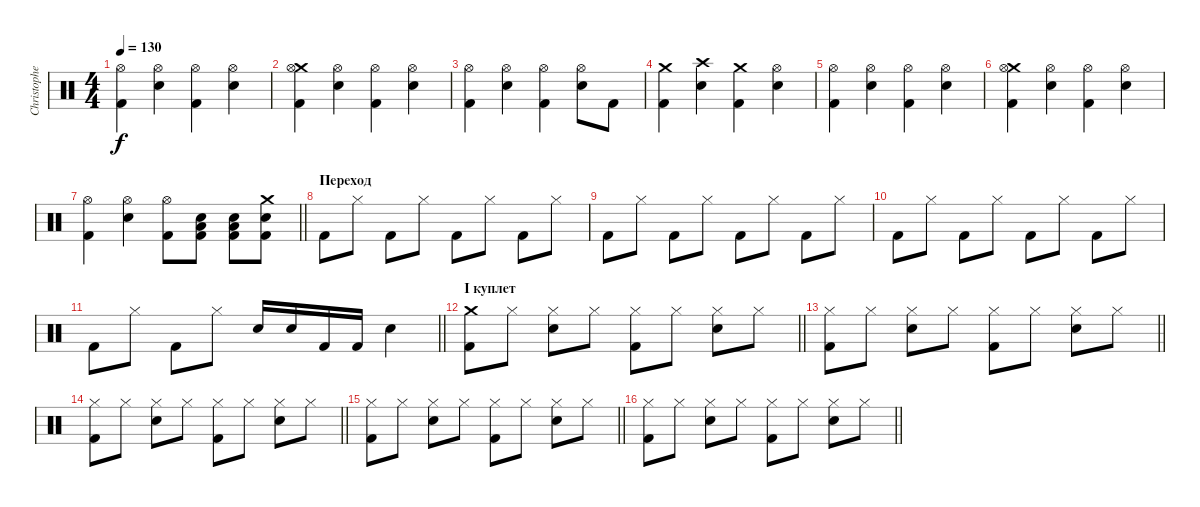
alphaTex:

\track ("Christopher Schneider" "Christophe") {instrument percussion}
\staff {score}
\articulation defaults
\ts (4 4)
\tempo 130
\clef neutral
\ks c
("Hi-Hat (open)" "Kick (hit) 2").4{dy f} ("Hi-Hat (open)" "Electric Snare (hit)").4 ("Hi-Hat (open)" "Kick (hit) 2").4 ("Hi-Hat (open)" "Electric Snare (hit)").4 |
("Crash medium (hit)" "Kick (hit) 2" "Hi-Hat (open)").4 ("Hi-Hat (open)" "Electric Snare (hit)").4 ("Hi-Hat (open)" "Kick (hit) 2").4 ("Hi-Hat (open)" "Electric Snare (hit)").4 |
("Hi-Hat (open)" "Kick (hit) 2").4 ("Hi-Hat (open)" "Electric Snare (hit)").4 ("Hi-Hat (open)" "Kick (hit) 2").4 ("Hi-Hat (open)" "Electric Snare (hit)").8 "Kick (hit) 2".8 |
("Crash medium (hit)" "Kick (hit) 2").4 ("Crash high (hit)" "Electric Snare (hit)").4 ("Crash medium (hit)" "Kick (hit) 2").4 ("Hi-Hat (open)" "Electric Snare (hit)").4 |
("Hi-Hat (open)" "Kick (hit) 2").4 ("Hi-Hat (open)" "Electric Snare (hit)").4 ("Hi-Hat (open)" "Kick (hit) 2").4 ("Hi-Hat (open)" "Electric Snare (hit)").4 |
("Crash medium (hit)" "Kick (hit) 2" "Hi-Hat (open)").4 ("Hi-Hat (open)" "Electric Snare (hit)").4 ("Hi-Hat (open)" "Kick (hit) 2").4 ("Hi-Hat (open)" "Electric Snare (hit)").4 |
\barLineRight lightlight
("Hi-Hat (open)" "Kick (hit) 2").4 ("Hi-Hat (open)" "Electric Snare (hit)").4 ("Hi-Hat (open)" "Kick (hit) 2").8 ("Low Tom (hit)" "Electric Snare (hit)" "Kick (hit) 2").8 ("Low Tom (hit)" "Electric Snare (hit)" "Kick (hit) 2").8 ("Crash medium (hit)" "Electric Snare (hit)" "Kick (hit) 2").8 |
\section ("" "Переход")
"Kick (hit) 2".8 "Hi-Hat (closed)".8 "Kick (hit) 2".8 "Hi-Hat (closed)".8 "Kick (hit) 2".8 "Hi-Hat (closed)".8 "Kick (hit) 2".8 "Hi-Hat (closed)".8 |
"Kick (hit) 2".8 "Hi-Hat (closed)".8 "Kick (hit) 2".8 "Hi-Hat (closed)".8 "Kick (hit) 2".8 "Hi-Hat (closed)".8 "Kick (hit) 2".8 "Hi-Hat (closed)".8 |
"Kick (hit) 2".8 "Hi-Hat (closed)".8 "Kick (hit) 2".8 "Hi-Hat (closed)".8 "Kick (hit) 2".8 "Hi-Hat (closed)".8 "Kick (hit) 2".8 "Hi-Hat (closed)".8 |
\barLineRight lightlight "Kick (hit) 2".8 "Hi-Hat (closed)".8 "Kick (hit) 2".8 "Hi-Hat (closed)".8 "Electric Snare (hit)".16 "Electric Snare (hit)".16 "Kick (hit) 2".16 "Kick (hit) 2".16 "Electric Snare (hit)".4
|
\section ("" "I куплет")
\barLineRight lightlight
("Crash medium (hit)" "Kick (hit) 2").8 "Hi-Hat (closed)".8 ("Hi-Hat (closed)" "Electric Snare (hit)").8 "Hi-Hat (closed)".8 ("Hi-Hat (closed)" "Kick (hit) 2").8 "Hi-Hat (closed)".8 ("Hi-Hat (closed)" "Electric Snare (hit)").8 "Hi-Hat (closed)".8 |
\barLineRight lightlight
("Hi-Hat (closed)" "Kick (hit) 2").8 "Hi-Hat (closed)".8 ("Hi-Hat (closed)" "Electric Snare (hit)").8 "Hi-Hat (closed)".8 ("Hi-Hat (closed)" "Kick (hit) 2").8 "Hi-Hat (closed)".8 ("Hi-Hat (closed)" "Electric Snare (hit)").8 "Hi-Hat (closed)".8 |
\barLineRight lightlight
("Hi-Hat (closed)" "Kick (hit) 2").8 "Hi-Hat (closed)".8 ("Hi-Hat (closed)" "Electric Snare (hit)").8 "Hi-Hat (closed)".8 ("Hi-Hat (closed)" "Kick (hit) 2").8 "Hi-Hat (closed)".8 ("Hi-Hat (closed)" "Electric Snare (hit)").8 "Hi-Hat (closed)".8 |
\barLineRight lightlight
("Hi-Hat (closed)" "Kick (hit) 2").8 "Hi-Hat (closed)".8 ("Hi-Hat (closed)" "Electric Snare (hit)").8 "Hi-Hat (closed)".8 ("Hi-Hat (closed)" "Kick (hit) 2").8 "Hi-Hat (closed)".8 ("Hi-Hat (closed)" "Electric Snare (hit)").8 "Hi-Hat (closed)".8 |
\barLineRight lightlight
("Hi-Hat (closed)" "Kick (hit) 2").8 "Hi-Hat (closed)".8 ("Hi-Hat (closed)" "Electric Snare (hit)").8 "Hi-Hat (closed)".8 ("Hi-Hat (closed)" "Kick (hit) 2").8 "Hi-Hat (closed)".8 ("Hi-Hat (closed)" "Electric Snare (hit)").8 "Hi-Hat (closed)".8
